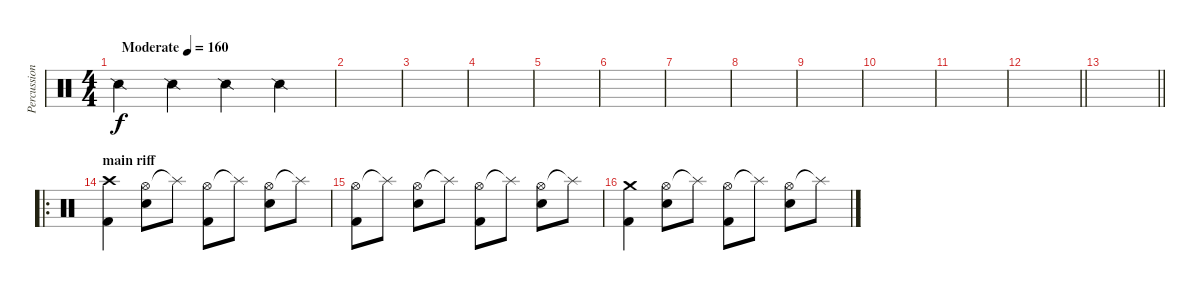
\track ("Percussion" "Percussion") {mute instrument percussion}
\staff {score}
\articulation defaults
\ts (4 4)
\tempo (160 "Moderate")
\clef neutral
\ks c "Snare (side stick) 2".4{dy f} "Snare (side stick) 2".4 "Snare (side stick) 2".4 "Snare (side stick) 2".4
|
|
|
|
|
|
|
|
|
|
|
\barLineRight lightlight
|
\barLineRight lightlight
|
\ro
\section ("" "main riff")
("Crash high (hit)" "Kick (hit) 2").4 ("Hi-Hat (open)" "Snare (hit) 2").8 "Splash (hit)"{t}.8 ("Hi-Hat (open)" "Kick (hit) 2").8 "Splash (hit)"{t}.8 ("Hi-Hat (open)" "Snare (hit) 2").8 "Splash (hit)"{t}.8 |
("Hi-Hat (open)" "Kick (hit) 2").8 "Splash (hit)"{t}.8 ("Hi-Hat (open)" "Snare (hit) 2").8 "Splash (hit)"{t}.8 ("Hi-Hat (open)" "Kick (hit) 2").8 "Splash (hit)"{t}.8 ("Hi-Hat (open)" "Snare (hit) 2").8 "Splash (hit)"{t}.8 |
("Crash medium (hit)" "Kick (hit) 2").4 ("Hi-Hat (open)" "Snare (hit) 2").8 "Splash (hit)"{t}.8 ("Hi-Hat (open)" "Kick (hit) 2").8 "Splash (hit)"{t}.8 ("Hi-Hat (open)" "Snare (hit) 2").8 "Splash (hit)"{t}.8
